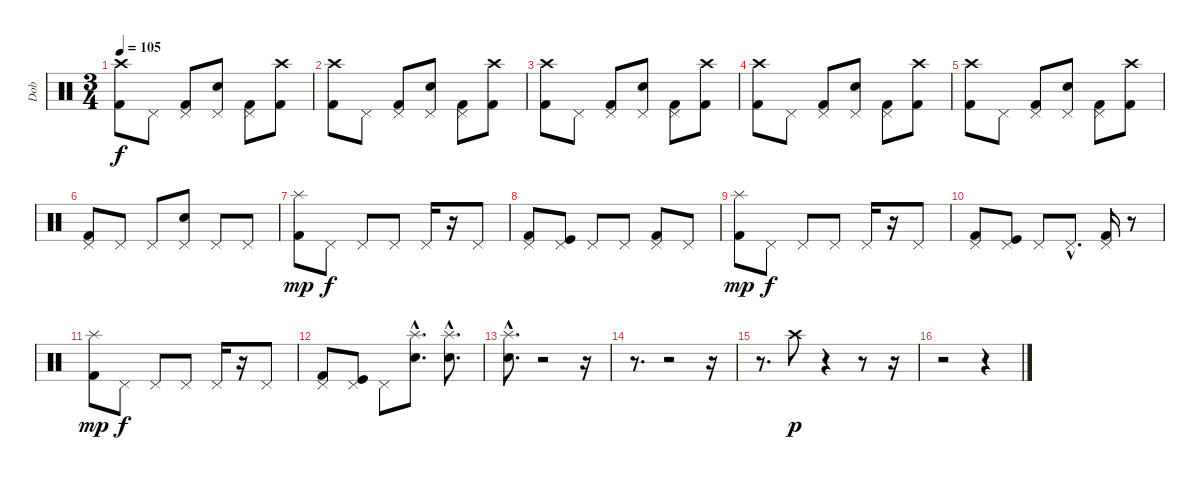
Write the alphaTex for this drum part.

\track ("Dob" "Dob") {instrument percussion}
\staff {score}
\articulation defaults
\ts (3 4)
\tempo 105
\clef neutral
\ks c
("Kick (hit) 2" "Crash high (hit)").8{dy f} "Pedal Hi-Hat (hit)".8 ("Kick (hit) 2" "Pedal Hi-Hat (hit)").8 ("Electric Snare (hit)" "Pedal Hi-Hat (hit)").8 ("Kick (hit) 2" "Pedal Hi-Hat (hit)").8 ("Kick (hit) 2" "Crash high (hit)").8 |
("Kick (hit) 2" "Crash high (hit)").8 "Pedal Hi-Hat (hit)".8 ("Kick (hit) 2" "Pedal Hi-Hat (hit)").8 ("Electric Snare (hit)" "Pedal Hi-Hat (hit)").8 ("Kick (hit) 2" "Pedal Hi-Hat (hit)").8 ("Kick (hit) 2" "Crash high (hit)").8 |
("Kick (hit) 2" "Crash high (hit)").8 "Pedal Hi-Hat (hit)".8 ("Kick (hit) 2" "Pedal Hi-Hat (hit)").8 ("Electric Snare (hit)" "Pedal Hi-Hat (hit)").8 ("Kick (hit) 2" "Pedal Hi-Hat (hit)").8 ("Kick (hit) 2" "Crash high (hit)").8 |
("Kick (hit) 2" "Crash high (hit)").8 "Pedal Hi-Hat (hit)".8 ("Kick (hit) 2" "Pedal Hi-Hat (hit)").8 ("Electric Snare (hit)" "Pedal Hi-Hat (hit)").8 ("Kick (hit) 2" "Pedal Hi-Hat (hit)").8 ("Kick (hit) 2" "Crash high (hit)").8 |
("Kick (hit) 2" "Crash high (hit)").8 "Pedal Hi-Hat (hit)".8 ("Kick (hit) 2" "Pedal Hi-Hat (hit)").8 ("Electric Snare (hit)" "Pedal Hi-Hat (hit)").8 ("Kick (hit) 2" "Pedal Hi-Hat (hit)").8 ("Kick (hit) 2" "Crash high (hit)").8 |
("Kick (hit) 2" "Pedal Hi-Hat (hit)").8 "Pedal Hi-Hat (hit)".8 "Pedal Hi-Hat (hit)".8 ("Electric Snare (hit)" "Pedal Hi-Hat (hit)").8 "Pedal Hi-Hat (hit)".8 "Pedal Hi-Hat (hit)".8 |
("Kick (hit) 2" "Splash (hit)").8{dy mp} "Pedal Hi-Hat (hit)".8{dy f} "Pedal Hi-Hat (hit)".8 "Pedal Hi-Hat (hit)".8 "Pedal Hi-Hat (hit)".16 r.16 "Pedal Hi-Hat (hit)".8 |
("Kick (hit) 2" "Pedal Hi-Hat (hit)").8 ("Kick (hit)" "Pedal Hi-Hat (hit)").8 "Pedal Hi-Hat (hit)".8 "Pedal Hi-Hat (hit)".8 ("Kick (hit) 2" "Pedal Hi-Hat (hit)").8 "Pedal Hi-Hat (hit)".8 |
("Kick (hit) 2" "Splash (hit)").8{dy mp} "Pedal Hi-Hat (hit)".8{dy f} "Pedal Hi-Hat (hit)".8 "Pedal Hi-Hat (hit)".8 "Pedal Hi-Hat (hit)".16 r.16 "Pedal Hi-Hat (hit)".8 |
("Kick (hit) 2" "Pedal Hi-Hat (hit)").8 ("Kick (hit)" "Pedal Hi-Hat (hit)").8 "Pedal Hi-Hat (hit)".8 "Pedal Hi-Hat (hit)"{hac}.8{d} ("Kick (hit) 2" "Pedal Hi-Hat (hit)").16 r.8 |
("Kick (hit) 2" "Splash (hit)").8{dy mp} "Pedal Hi-Hat (hit)".8{dy f} "Pedal Hi-Hat (hit)".8 "Pedal Hi-Hat (hit)".8 "Pedal Hi-Hat (hit)".16 r.16 "Pedal Hi-Hat (hit)".8 |
("Kick (hit) 2" "Pedal Hi-Hat (hit)").8 ("Kick (hit)" "Pedal Hi-Hat (hit)").8 "Pedal Hi-Hat (hit)".8 ("Electric Snare (hit)"{hac} "Splash (hit)"{hac}).8{d} ("Electric Snare (hit)"{hac} "Splash (hit)"{hac}).8{d} |
("Electric Snare (hit)"{hac} "Splash (hit)"{hac}).8{d} r.2 r.16 |
r.8{d} r.2 r.16 |
r.8{d} "Crash high (hit)".8{dy p} r.4 r.8 r.16 |
r.2 r.4
